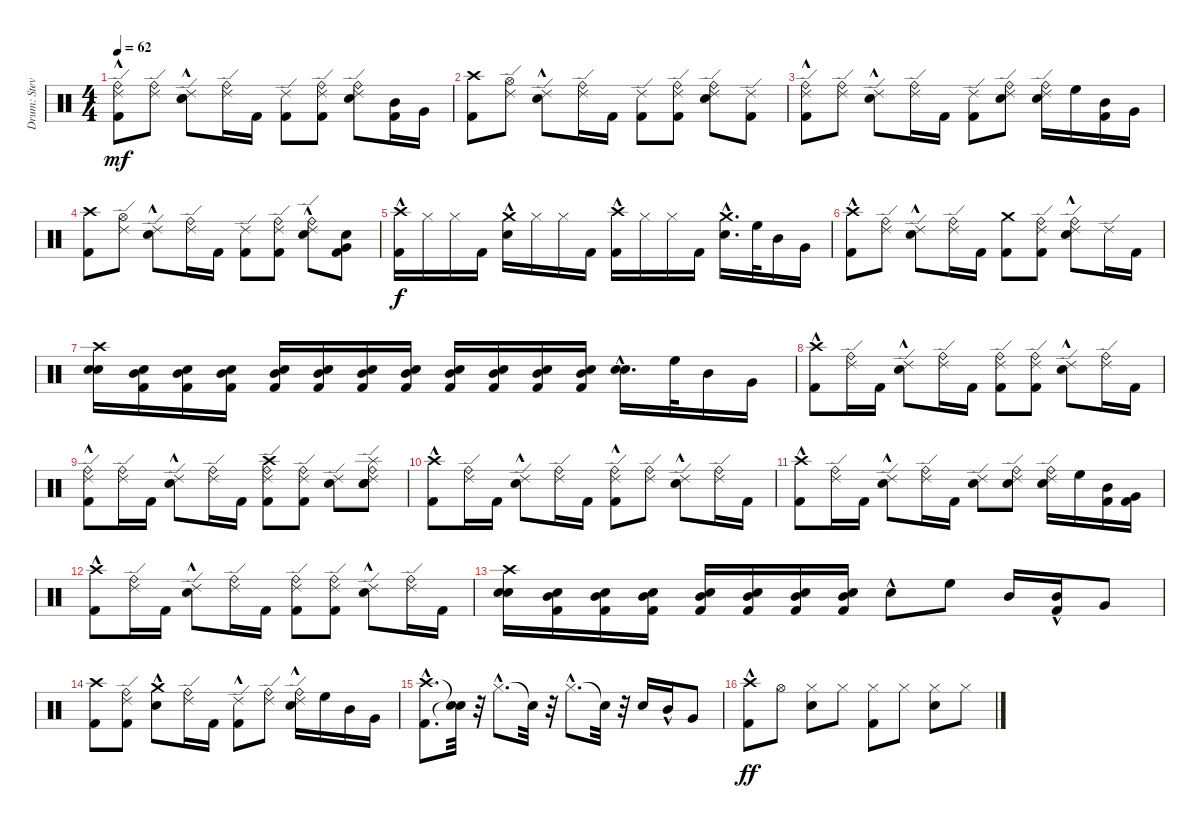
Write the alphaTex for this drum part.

\track ("Drum: Steven Adler" "Drum: Stev") {instrument percussion}
\staff {score}
\articulation defaults
\ts (4 4)
\tempo 62
\clef neutral
\ks c
("Ride (bell)" "Ride (edge) 2" "Kick (hit) 2"{hac}).8{dy mf} ("Ride (bell)" "Ride (edge) 2").8 ("Ride (edge) 2" "Snare (hit) 2"{hac} "Electric Snare (hit)"{hac}).8 ("Ride (bell)" "Ride (edge) 2").16 "Kick (hit) 2".16 ("Ride (edge) 2" "Kick (hit) 2").8 ("Ride (bell)" "Ride (edge) 2" "Kick (hit) 2").8 ("Ride (bell)" "Ride (edge) 2" "Snare (hit) 2").8 ("Mid Tom (hit)" "Kick (hit) 2").16 "Very Low Tom (hit)".16 |
("Crash high (hit)" "Kick (hit) 2").8 ("Ride (edge) 2" "Hi-Hat (open)").8 ("Ride (edge) 2" "Snare (hit) 2"{hac}).8 ("Ride (bell)" "Ride (edge) 2").16 "Kick (hit) 2".16 ("Ride (edge) 2" "Kick (hit) 2").8 ("Ride (bell)" "Ride (edge) 2" "Kick (hit) 2").8 ("Ride (bell)" "Ride (edge) 2" "Snare (hit) 2").8 ("Ride (edge) 2" "Kick (hit) 2").8 |
("Ride (bell)" "Ride (edge) 2" "Kick (hit) 2"{hac}).8 ("Ride (bell)" "Ride (edge) 2").8 ("Ride (edge) 2" "Snare (hit) 2"{hac}).8 ("Ride (bell)" "Ride (edge) 2").16 "Kick (hit) 2".16 ("Ride (edge) 2" "Kick (hit) 2").8 ("Ride (bell)" "Ride (edge) 2" "Snare (hit) 2").8 ("Ride (bell)" "Ride (edge) 2" "Snare (hit) 2").16 "High Floor Tom (hit)".16 ("Mid Tom (hit)" "Kick (hit) 2").16 "Very Low Tom (hit)".16 |
("Crash high (hit)" "Kick (hit) 2").8 ("Ride (edge) 2" "Hi-Hat (open)").8 ("Ride (edge) 2" "Snare (hit) 2"{hac}).8 ("Ride (bell)" "Ride (edge) 2").16 "Kick (hit) 2".16 ("Ride (edge) 2" "Kick (hit) 2").8 ("Ride (bell)" "Ride (edge) 2" "Kick (hit) 2").8 ("Ride (bell)"{hac} "Ride (edge) 2"{hac} "Snare (hit) 2").8 ("Kick (hit) 2" "Snare (hit) 2" "Very Low Tom (hit)").8 |
("Crash high (hit)"{hac} "Kick (hit) 2").16{dy f} "Hi-Hat (closed)".16 "Hi-Hat (closed)".16 "Kick (hit) 2".16 ("Crash medium (hit)"{hac} "Snare (hit) 2").16 "Hi-Hat (closed)".16 "Hi-Hat (closed)".16 "Kick (hit) 2".16 ("Crash high (hit)"{hac} "Kick (hit) 2").16 "Hi-Hat (closed)".16 "Hi-Hat (closed)".16 "Kick (hit) 2".16 ("Crash medium (hit)"{hac} "Snare (hit) 2"{hac}).16{d} "High Floor Tom (hit)".32 "Mid Tom (hit)".16 "Very Low Tom (hit)".16 |
("Crash high (hit)" "Kick (hit) 2"{hac}).8 ("Ride (bell)" "Ride (edge) 2").8 ("Ride (edge) 2" "Snare (hit) 2"{hac}).8 ("Ride (bell)" "Ride (edge) 2").16 "Kick (hit) 2".16 ("Crash medium (hit)" "Kick (hit) 2").8 ("Ride (bell)" "Ride (edge) 2" "Kick (hit) 2").8 ("Ride (bell)" "Ride (edge) 2" "Snare (hit) 2"{hac}).8 "Ride (edge) 2".16 "Kick (hit) 2".16 |
("Crash high (hit)" "Snare (hit) 2" "Electric Snare (hit)").16 ("Mid Tom (hit)" "Kick (hit) 2" "Snare (hit) 2").16 ("Mid Tom (hit)" "Kick (hit) 2" "Snare (hit) 2").16 ("Mid Tom (hit)" "Kick (hit) 2" "Snare (hit) 2").16 ("Mid Tom (hit)" "Kick (hit) 2" "Snare (hit) 2").16 ("Mid Tom (hit)" "Kick (hit) 2" "Snare (hit) 2").16 ("Mid Tom (hit)" "Kick (hit) 2" "Snare (hit) 2").16 ("Mid Tom (hit)" "Kick (hit) 2" "Snare (hit) 2").16 ("Mid Tom (hit)" "Kick (hit) 2" "Snare (hit) 2").16 ("Mid Tom (hit)" "Kick (hit) 2" "Snare (hit) 2").16 ("Mid Tom (hit)" "Kick (hit) 2" "Snare (hit) 2").16 ("Mid Tom (hit)" "Kick (hit) 2" "Snare (hit) 2").16 ("Snare (hit) 2"{hac} "Electric Snare (hit)"{hac}).16{d} "High Floor Tom (hit)".32 "Mid Tom (hit)".16 "Very Low Tom (hit)".16 |
("Crash high (hit)" "Kick (hit) 2"{hac}).8 ("Ride (bell)" "Ride (edge) 2").16 "Kick (hit) 2".16 ("Ride (edge) 2" "Snare (hit) 2"{hac}).8 ("Ride (bell)" "Ride (edge) 2").16 "Kick (hit) 2".16 ("Ride (bell)" "Ride (edge) 2" "Kick (hit) 2").8 ("Ride (bell)" "Ride (edge) 2" "Kick (hit) 2").8 ("Ride (edge) 2" "Snare (hit) 2"{hac}).8 ("Ride (bell)" "Ride (edge) 2").16 "Kick (hit) 2".16 |
("Ride (bell)" "Ride (edge) 2" "Kick (hit) 2"{hac}).8 ("Ride (bell)" "Ride (edge) 2").16 "Kick (hit) 2".16 ("Ride (edge) 2" "Snare (hit) 2"{hac}).8 ("Ride (bell)" "Ride (edge) 2").16 "Kick (hit) 2".16 ("Crash high (hit)" "Ride (bell)" "Ride (edge) 2" "Kick (hit) 2").8 ("Ride (bell)" "Ride (edge) 2" "Kick (hit) 2").8 ("Ride (edge) 2" "Snare (hit) 2").8 ("Ride (bell)" "Splash (hit)" "Ride (edge) 2" "Snare (hit) 2" "Electric Snare (hit)").8 |
("Crash high (hit)" "Kick (hit) 2"{hac}).8 ("Ride (bell)" "Ride (edge) 2").16 "Kick (hit) 2".16 ("Ride (edge) 2" "Snare (hit) 2"{hac}).8 ("Ride (bell)" "Ride (edge) 2").16 "Kick (hit) 2".16 ("Ride (bell)" "Ride (edge) 2" "Kick (hit) 2"{hac}).8 ("Ride (bell)" "Ride (edge) 2").8 ("Ride (edge) 2" "Snare (hit) 2"{hac}).8 ("Ride (bell)" "Ride (edge) 2").16 "Kick (hit) 2".16 |
("Crash high (hit)" "Kick (hit) 2"{hac}).8 ("Ride (bell)" "Ride (edge) 2").16 "Kick (hit) 2".16 ("Ride (edge) 2" "Snare (hit) 2"{hac}).8 ("Ride (bell)" "Ride (edge) 2").16 "Kick (hit) 2".16 ("Ride (edge) 2" "Snare (hit) 2").8 ("Ride (bell)" "Ride (edge) 2" "Snare (hit) 2").8 ("Ride (bell)" "Ride (edge) 2" "Snare (hit) 2").16 "High Floor Tom (hit)".16 ("Mid Tom (hit)" "Kick (hit) 2").16 ("Kick (hit) 2" "Very Low Tom (hit)").16 |
("Crash high (hit)" "Kick (hit) 2"{hac}).8 ("Ride (bell)" "Ride (edge) 2").16 "Kick (hit) 2".16 ("Ride (edge) 2" "Snare (hit) 2"{hac}).8 ("Ride (bell)" "Ride (edge) 2").16 "Kick (hit) 2".16 ("Ride (bell)" "Ride (edge) 2" "Kick (hit) 2").8 ("Ride (bell)" "Ride (edge) 2" "Kick (hit) 2").8 ("Ride (edge) 2" "Snare (hit) 2"{hac}).8 ("Ride (bell)" "Ride (edge) 2").16 "Kick (hit) 2".16 |
("Crash high (hit)" "Snare (hit) 2" "Electric Snare (hit)").16 ("Mid Tom (hit)" "Kick (hit) 2" "Snare (hit) 2").16 ("Mid Tom (hit)" "Kick (hit) 2" "Snare (hit) 2").16 ("Mid Tom (hit)" "Kick (hit) 2" "Snare (hit) 2").16 ("Mid Tom (hit)" "Kick (hit) 2" "Snare (hit) 2").16 ("Mid Tom (hit)" "Kick (hit) 2" "Snare (hit) 2").16 ("Mid Tom (hit)" "Kick (hit) 2" "Snare (hit) 2").16 ("Mid Tom (hit)" "Kick (hit) 2" "Snare (hit) 2").16 "Snare (hit) 2"{hac}.8 "High Floor Tom (hit)".8 "Mid Tom (hit)".16 ("Mid Tom (hit)"{hac} "Kick (hit) 2").16 "Very Low Tom (hit)".8 |
("Crash high (hit)" "Kick (hit) 2").8 ("Ride (bell)" "Ride (edge) 2" "Kick (hit) 2").8 ("Crash medium (hit)" "Snare (hit) 2"{hac}).8 ("Ride (bell)" "Ride (edge) 2").16 "Kick (hit) 2".16 ("Ride (edge) 2" "Kick (hit) 2"{hac}).8 ("Ride (bell)" "Ride (edge) 2").8 ("Ride (bell)" "Ride (edge) 2" "Snare (hit) 2"{hac}).16 "High Floor Tom (hit)".16 "Mid Tom (hit)".16 "Very Low Tom (hit)".16 |
("Crash high (hit)"{hac} "Kick (hit) 2"{hac}).8{d} ("Snare (hit)"{t} "Snare (hit)"{t}).32 r.32 "Hi-Hat (closed)"{hac}.8{d} "Snare (hit)"{t}.32 r.32 "Hi-Hat (closed)"{hac}.8{d} "Snare (hit)"{t}.32 r.32 "Snare (hit) 2".16 "Mid Tom (hit)"{hac}.16 "Very Low Tom (hit)".8 |
("Crash high (hit)"{hac} "Kick (hit) 2").8{dy ff} "Hi-Hat (open)".8 ("Snare (hit) 2" "Hi-Hat (closed)").8 "Hi-Hat (closed)".8 ("Kick (hit) 2" "Hi-Hat (closed)").8 "Hi-Hat (closed)".8 ("Snare (hit) 2" "Hi-Hat (closed)").8 "Hi-Hat (closed)".8
